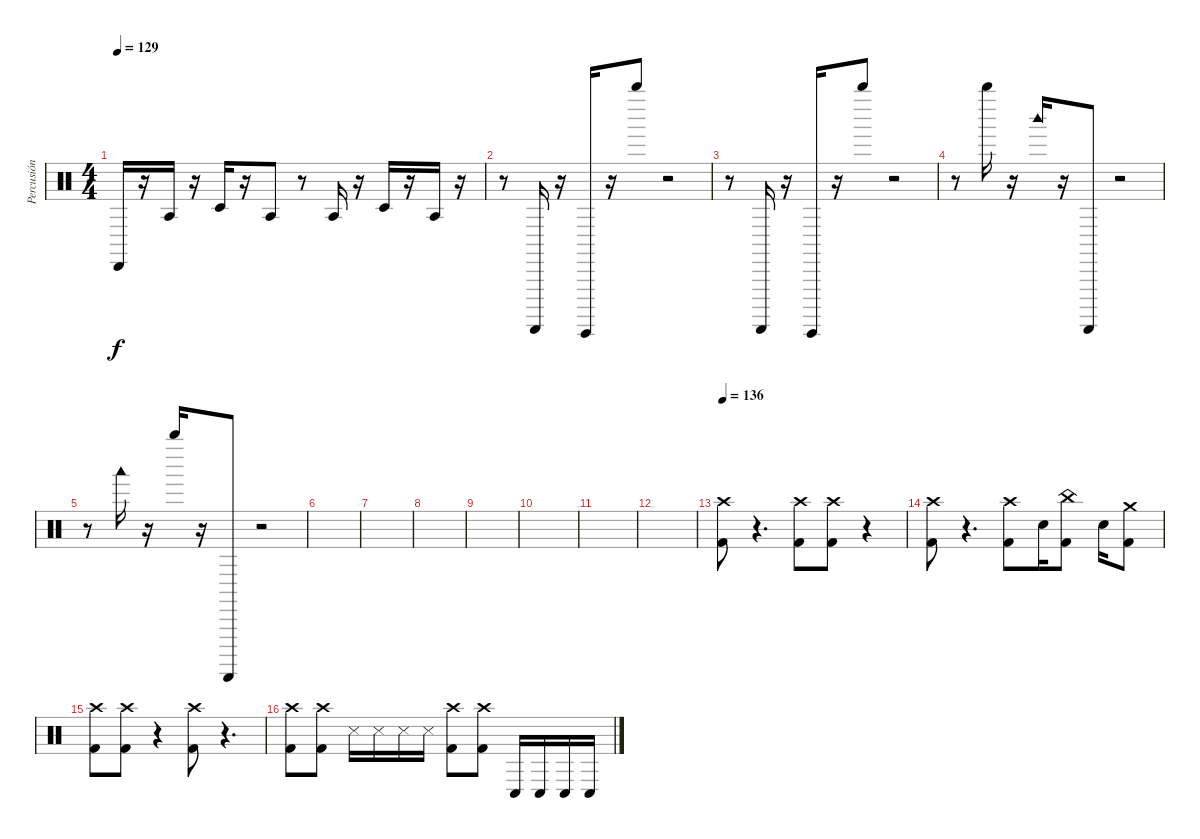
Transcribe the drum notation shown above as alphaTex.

\track ("Percusión" "Percusión") {instrument percussion}
\staff {score}
\articulation defaults
\ts (4 4)
\tempo 129
\clef neutral
\ks c "Cabasa (hit)".16{dy f}
r.16 "Agogo tow (hit)".16 r.16 "Timbale low (hit)".16 r.16 "Agogo tow (hit)".8 r.8 "Agogo tow (hit)".16 r.16 "Timbale low (hit)".16 r.16 "Agogo tow (hit)".16 r.16 |
r.8 "Guiro (scrap-return)".16 r.16 "Guiro (hit)".16 r.16 "Whistle high (hit)".8 r.2 |
r.8 "Guiro (scrap-return)".16 r.16 "Guiro (hit)".16 r.16 "Whistle high (hit)".8 r.2 |
r.8 "Whistle high (hit)".16 r.16 "Woodblock high (hit)".16 r.16 "Guiro (scrap-return)".8 r.2 |
r.8 "Woodblock low (hit)".16 r.16 "Whistle high (hit)".16 r.16 "Guiro (scrap-return)".8 r.2 |
|
|
|
|
|
|
|
\tempo 136
("Crash high (hit)" "Kick (hit) 2").8{volume 15} r.4{d volume 0} ("Crash high (hit)" "Kick (hit) 2").8{volume 15} ("Crash high (hit)" "Kick (hit) 2").8 r.4{volume 0} |
("Crash high (hit)" "Kick (hit) 2").8{volume 15} r.4{d volume 0} ("Crash high (hit)" "Kick (hit) 2").8{volume 15} "Snare (hit) 2".16 ("China (hit)" "Kick (hit) 2").8 "Snare (hit) 2".16 ("Crash medium (hit)" "Kick (hit) 2").8 |
("Crash high (hit)" "Kick (hit) 2").8{volume 15} ("Crash high (hit)" "Kick (hit) 2").8 r.4{volume 0} ("Crash high (hit)" "Kick (hit) 2").8{volume 15} r.4{d volume 0} |
("Crash high (hit)" "Kick (hit) 2").8{volume 15} ("Crash high (hit)" "Kick (hit) 2").8 "Snare (side stick) 3".16 "Snare (side stick) 3".16 "Snare (side stick) 3".16 "Snare (side stick) 3".16 ("Crash high (hit)" "Kick (hit) 2").8{volume 15} ("Crash high (hit)" "Kick (hit) 2").8 "Conga low (hit)".16 "Conga low (hit)".16 "Conga low (hit)".16 "Conga low (hit)".16
